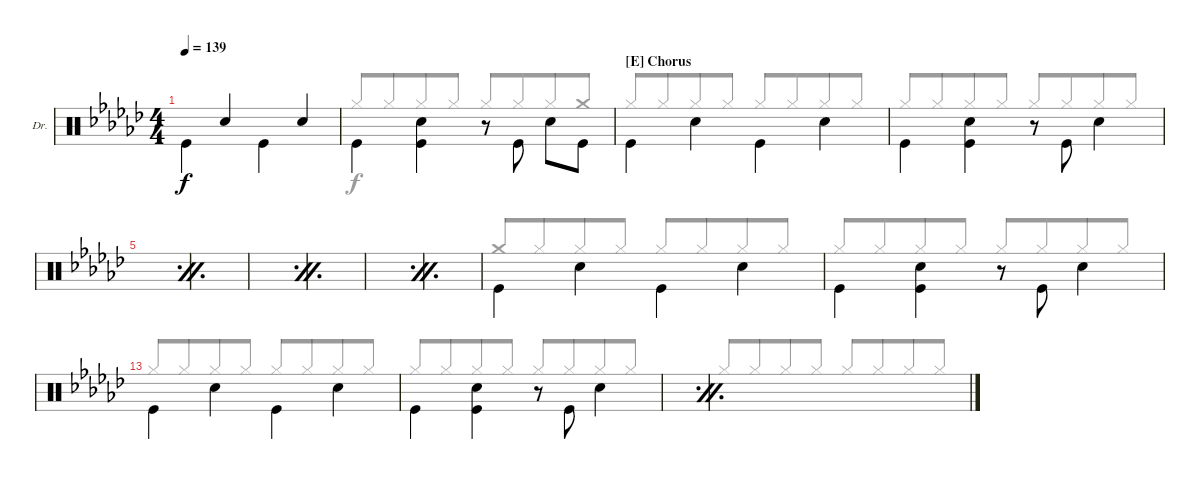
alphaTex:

\bracketExtendMode groupsimilarinstruments
\firstSystemTrackNameOrientation horizontal
\otherSystemsTrackNameOrientation horizontal
\defaultBarNumberDisplay FirstOfSystem
\track ("Drums" "Dr.") {instrument percussion}
\staff {score}
\articulation defaults
\voice
\ts (4 4)
\tempo 139
\clef neutral
\ks gb "Kick (hit)".4{dy f beam invert} "Snare (hit) 2".4{beam invert} "Kick (hit)".4{beam invert} "Snare (hit) 2".4{beam invert}
|
"Kick (hit)".4{beam invert} ("Snare (hit) 2" "Kick (hit)").4{beam invert} r.8 "Kick (hit)".8{beam invert} "Snare (hit) 2".8{beam invert} "Kick (hit)".8 |
\section ("E" "Chorus")
"Kick (hit)".4{beam invert} "Snare (hit) 2".4{beam invert} "Kick (hit)".4{beam invert} "Snare (hit) 2".4{beam invert} |
"Kick (hit)".4{beam invert} ("Snare (hit) 2" "Kick (hit)").4{beam invert} r.8 "Kick (hit)".8{beam invert} "Snare (hit) 2".4{beam invert} |
\simile firstofdouble
|
\simile secondofdouble
|
\simile firstofdouble
|
\simile secondofdouble
|
\simile firstofdouble
|
\simile secondofdouble
|
\simile none "Kick (hit)".4{beam invert} "Snare (hit) 2".4{beam invert} "Kick (hit)".4{beam invert} "Snare (hit) 2".4{beam invert}
|
"Kick (hit)".4{beam invert} ("Snare (hit) 2" "Kick (hit)").4{beam invert} r.8 "Kick (hit)".8{beam invert} "Snare (hit) 2".4{beam invert} |
"Kick (hit)".4{beam invert} "Snare (hit) 2".4{beam invert} "Kick (hit)".4{beam invert} "Snare (hit) 2".4{beam invert} |
"Kick (hit)".4{beam invert} ("Snare (hit) 2" "Kick (hit)").4{beam invert} r.8 "Kick (hit)".8{beam invert} "Snare (hit) 2".4{beam invert} |
\simile firstofdouble
|
\simile secondofdouble
\voice
\clef neutral
\ottava regular
\simile none
\ks gb "Hi-Hat (closed)".8{dy f beam invert} "Hi-Hat (closed)".8{beam merge} "Hi-Hat (closed)".8 "Hi-Hat (closed)".8 "Hi-Hat (closed)".8{beam invert} "Hi-Hat (closed)".8{beam merge} "Hi-Hat (closed)".8 "Hi-Hat (closed)".8
|
"Hi-Hat (closed)".8{beam invert beam merge} "Hi-Hat (closed)".8{beam merge} "Hi-Hat (closed)".8 "Hi-Hat (closed)".8 "Hi-Hat (closed)".8{beam invert} "Hi-Hat (closed)".8{beam merge} "Hi-Hat (closed)".8{beam merge} "Crash medium (hit)".8 |
"Hi-Hat (closed)".8{beam invert} "Hi-Hat (closed)".8{beam merge} "Hi-Hat (closed)".8 "Hi-Hat (closed)".8 "Hi-Hat (closed)".8{beam invert} "Hi-Hat (closed)".8{beam merge} "Hi-Hat (closed)".8 "Hi-Hat (closed)".8 |
"Hi-Hat (closed)".8{beam invert} "Hi-Hat (closed)".8{beam merge} "Hi-Hat (closed)".8 "Hi-Hat (closed)".8 "Hi-Hat (closed)".8{beam invert beam merge} "Hi-Hat (closed)".8{beam merge} "Hi-Hat (closed)".8{beam merge} "Hi-Hat (closed)".8 |
\simile firstofdouble
|
\simile secondofdouble
|
\simile firstofdouble
|
\simile secondofdouble
|
\simile firstofdouble
|
\simile secondofdouble
|
\simile none "Crash medium (hit)".8{beam invert} "Hi-Hat (closed)".8{beam merge} "Hi-Hat (closed)".8 "Hi-Hat (closed)".8 "Hi-Hat (closed)".8{beam invert} "Hi-Hat (closed)".8{beam merge} "Hi-Hat (closed)".8 "Hi-Hat (closed)".8
|
"Hi-Hat (closed)".8{beam invert} "Hi-Hat (closed)".8{beam merge} "Hi-Hat (closed)".8 "Hi-Hat (closed)".8 "Hi-Hat (closed)".8{beam invert beam merge} "Hi-Hat (closed)".8{beam merge} "Hi-Hat (closed)".8{beam merge} "Hi-Hat (closed)".8 |
"Hi-Hat (closed)".8{beam invert} "Hi-Hat (closed)".8{beam merge} "Hi-Hat (closed)".8 "Hi-Hat (closed)".8 "Hi-Hat (closed)".8{beam invert} "Hi-Hat (closed)".8{beam merge} "Hi-Hat (closed)".8 "Hi-Hat (closed)".8 |
"Hi-Hat (closed)".8{beam invert beam merge} "Hi-Hat (closed)".8{beam merge} "Hi-Hat (closed)".8 "Hi-Hat (closed)".8 "Hi-Hat (closed)".8{beam invert} "Hi-Hat (closed)".8{beam merge} "Hi-Hat (closed)".8{beam merge} "Hi-Hat (closed)".8 |
\simile firstofdouble
|
\simile secondofdouble
